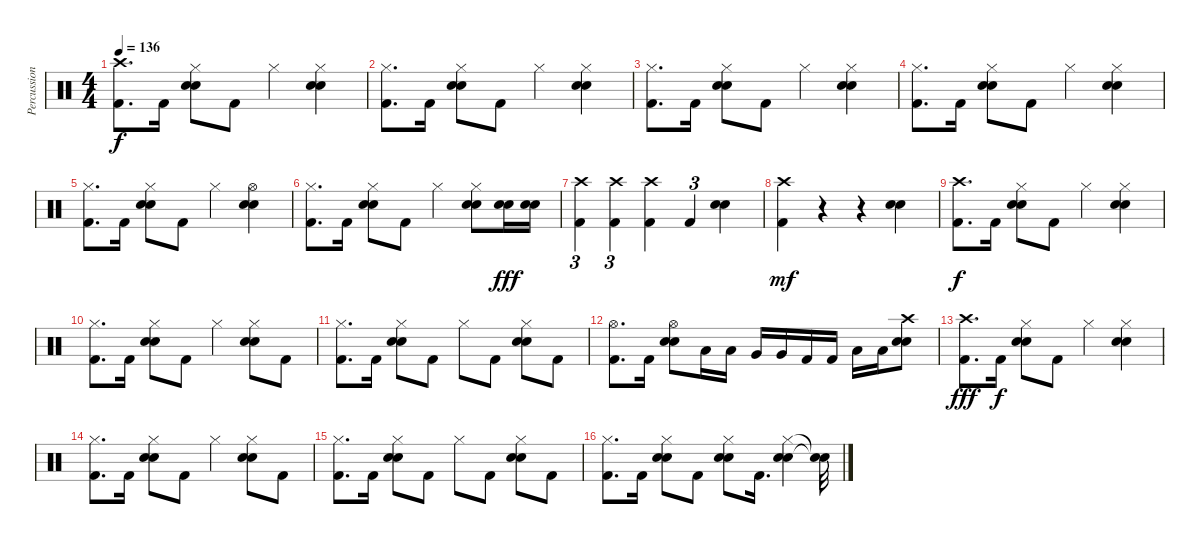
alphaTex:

\track ("Percussion" "Percussion") {instrument percussion}
\staff {score}
\articulation defaults
\ts (4 4)
\tempo 136
\clef neutral
\ks c
("Crash high (hit)" "Kick (hit) 2").8{d dy f} "Kick (hit) 2".16 ("Hi-Hat (closed)" "Electric Snare (hit)" "Snare (hit) 2").8 "Kick (hit) 2".8 "Hi-Hat (closed)".4 ("Hi-Hat (closed)" "Electric Snare (hit)" "Snare (hit) 2").4 |
("Hi-Hat (closed)" "Kick (hit) 2").8{d} "Kick (hit) 2".16 ("Hi-Hat (closed)" "Electric Snare (hit)" "Snare (hit) 2").8 "Kick (hit) 2".8 "Hi-Hat (closed)".4 ("Hi-Hat (closed)" "Electric Snare (hit)" "Snare (hit) 2").4 |
("Hi-Hat (closed)" "Kick (hit) 2").8{d} "Kick (hit) 2".16 ("Hi-Hat (closed)" "Electric Snare (hit)" "Snare (hit) 2").8 "Kick (hit) 2".8 "Hi-Hat (closed)".4 ("Hi-Hat (closed)" "Electric Snare (hit)" "Snare (hit) 2").4 |
("Hi-Hat (closed)" "Kick (hit) 2").8{d} "Kick (hit) 2".16 ("Hi-Hat (closed)" "Electric Snare (hit)" "Snare (hit) 2").8 "Kick (hit) 2".8 "Hi-Hat (closed)".4 ("Hi-Hat (closed)" "Electric Snare (hit)" "Snare (hit) 2").4 |
("Hi-Hat (closed)" "Kick (hit) 2").8{d} "Kick (hit) 2".16 ("Hi-Hat (closed)" "Electric Snare (hit)" "Snare (hit) 2").8 "Kick (hit) 2".8 "Hi-Hat (closed)".4 ("Hi-Hat (open)" "Electric Snare (hit)" "Snare (hit) 2").4 |
("Hi-Hat (closed)" "Kick (hit) 2").8{d} "Kick (hit) 2".16 ("Hi-Hat (closed)" "Electric Snare (hit)" "Snare (hit) 2").8 "Kick (hit) 2".8 "Hi-Hat (closed)".4 ("Hi-Hat (closed)" "Electric Snare (hit)" "Snare (hit) 2").8 ("Electric Snare (hit)" "Snare (hit) 2").16{dy fff} ("Electric Snare (hit)" "Snare (hit) 2").16 |
("Crash high (hit)" "Kick (hit) 2").4{tu (3 2)} ("Crash high (hit)" "Kick (hit) 2").4{tu (3 2)} ("Crash high (hit)" "Kick (hit) 2").4 "Kick (hit) 2".4{tu (3 2)} ("Electric Snare (hit)" "Snare (hit) 2").4 |
("Crash high (hit)" "Kick (hit) 2").4{dy mf} r.4 r.4 ("Electric Snare (hit)" "Snare (hit) 2").4 |
("Crash high (hit)" "Kick (hit) 2").8{d dy f} "Kick (hit) 2".16 ("Hi-Hat (closed)" "Electric Snare (hit)" "Snare (hit) 2").8 "Kick (hit) 2".8 "Hi-Hat (closed)".4 ("Hi-Hat (closed)" "Electric Snare (hit)" "Snare (hit) 2").4 |
("Hi-Hat (closed)" "Kick (hit) 2").8{d} "Kick (hit) 2".16 ("Hi-Hat (closed)" "Electric Snare (hit)" "Snare (hit) 2").8 "Kick (hit) 2".8 "Hi-Hat (closed)".4 ("Hi-Hat (closed)" "Electric Snare (hit)" "Snare (hit) 2").8 "Kick (hit) 2".8 |
("Hi-Hat (closed)" "Kick (hit) 2").8{d} "Kick (hit) 2".16 ("Hi-Hat (closed)" "Electric Snare (hit)" "Snare (hit) 2").8 "Kick (hit) 2".8 "Hi-Hat (closed)".8 "Kick (hit) 2".8 ("Hi-Hat (closed)" "Electric Snare (hit)" "Snare (hit) 2").8 "Kick (hit) 2".8 |
("Hi-Hat (open)" "Kick (hit) 2").8{d} "Kick (hit) 2".16 ("Hi-Hat (open)" "Electric Snare (hit)" "Snare (hit) 2").8 "Low Tom (hit)".16 "Low Tom (hit)".16 "Very Low Tom (hit)".16 "Very Low Tom (hit)".16 "Kick (hit) 2".16 "Kick (hit) 2".16 "Low Floor Tom (hit)".16 "Low Floor Tom (hit)".16 ("Crash high (hit)" "Electric Snare (hit)" "Snare (hit) 2").8 |
("Crash high (hit)" "Kick (hit) 2").8{d dy fff} "Kick (hit) 2".16{dy f} ("Hi-Hat (closed)" "Electric Snare (hit)" "Snare (hit) 2").8 "Kick (hit) 2".8 "Hi-Hat (closed)".4 ("Hi-Hat (closed)" "Electric Snare (hit)" "Snare (hit) 2").4 |
("Hi-Hat (closed)" "Kick (hit) 2").8{d} "Kick (hit) 2".16 ("Hi-Hat (closed)" "Electric Snare (hit)" "Snare (hit) 2").8 "Kick (hit) 2".8 "Hi-Hat (closed)".4 ("Hi-Hat (closed)" "Electric Snare (hit)" "Snare (hit) 2").8 "Kick (hit) 2".8 |
("Hi-Hat (closed)" "Kick (hit) 2").8{d} "Kick (hit) 2".16 ("Hi-Hat (closed)" "Electric Snare (hit)" "Snare (hit) 2").8 "Kick (hit) 2".8 "Hi-Hat (closed)".8 "Kick (hit) 2".8 ("Hi-Hat (closed)" "Electric Snare (hit)" "Snare (hit) 2").8 "Kick (hit) 2".8 |
("Hi-Hat (closed)" "Kick (hit) 2").8{d} "Kick (hit) 2".16 ("Hi-Hat (closed)" "Electric Snare (hit)" "Snare (hit) 2").8 "Kick (hit) 2".8 ("Hi-Hat (closed)" "Electric Snare (hit)" "Snare (hit) 2").8 "Kick (hit) 2".16{d} ("Hi-Hat (closed)" "Electric Snare (hit)" "Snare (hit) 2").4 ("Snare (hit)"{t} "Snare (hit)"{t}).32
